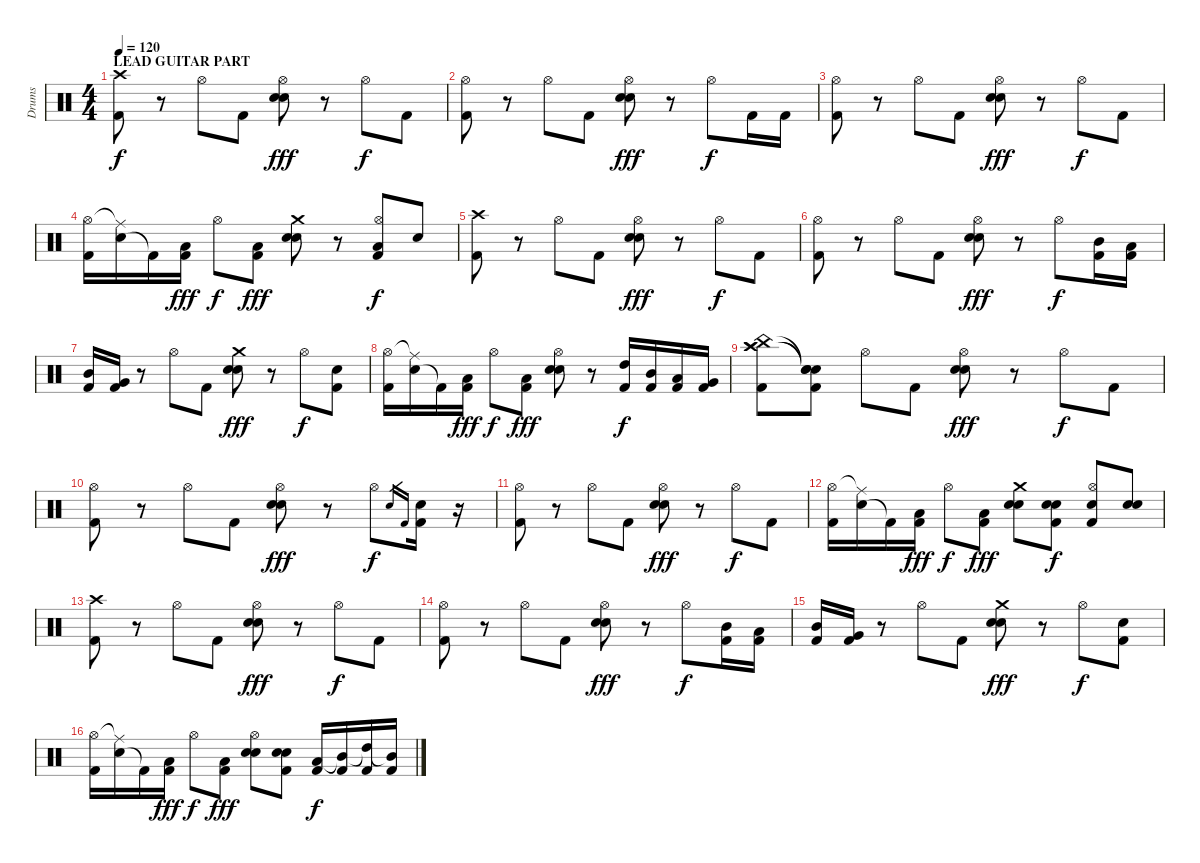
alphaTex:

\track ("Drums" "Drums") {instrument percussion}
\staff {score}
\articulation defaults
\ts (4 4)
\section ("" "LEAD GUITAR PART")
\tempo 120
\clef neutral
\ks c
("Kick (hit) 2" "Crash high (hit)").8{dy f} r.8 "Hi-Hat (open)".8 "Kick (hit) 2".8 ("Electric Snare (hit)" "Electric Snare (hit)" "Hi-Hat (open)").8{dy fff} r.8 "Hi-Hat (open)".8{dy f} "Kick (hit) 2".8 |
("Kick (hit) 2" "Hi-Hat (open)").8 r.8 "Hi-Hat (open)".8 "Kick (hit) 2".8 ("Electric Snare (hit)" "Electric Snare (hit)" "Hi-Hat (open)").8{dy fff} r.8 "Hi-Hat (open)".8{dy f} "Kick (hit) 2".16 "Kick (hit) 2".16 |
("Kick (hit) 2" "Hi-Hat (open)").8 r.8 "Hi-Hat (open)".8 "Kick (hit) 2".8 ("Electric Snare (hit)" "Electric Snare (hit)" "Hi-Hat (open)").8{dy fff} r.8 "Hi-Hat (open)".8{dy f} "Kick (hit) 2".8 |
("Kick (hit) 2" "Hi-Hat (open)").16 ("Electric Snare (hit)" "Ride (middle)"{t}).16 "Kick (hit) 2"{t}.16 ("Low Floor Tom (hit)" "Kick (hit) 2").16{dy fff} "Hi-Hat (open)".8{dy f} ("Low Floor Tom (hit)" "Kick (hit) 2").8{dy fff} ("Electric Snare (hit)" "Electric Snare (hit)" "Crash medium (hit)").8 r.8 ("Low Floor Tom (hit)" "Kick (hit) 2" "Hi-Hat (open)").8{dy f} "Electric Snare (hit)".8 |
("Kick (hit) 2" "Crash high (hit)").8 r.8 "Hi-Hat (open)".8 "Kick (hit) 2".8 ("Electric Snare (hit)" "Electric Snare (hit)" "Hi-Hat (open)").8{dy fff} r.8 "Hi-Hat (open)".8{dy f} "Kick (hit) 2".8 |
("Kick (hit) 2" "Hi-Hat (open)").8 r.8 "Hi-Hat (open)".8 "Kick (hit) 2".8 ("Electric Snare (hit)" "Electric Snare (hit)" "Hi-Hat (open)").8{dy fff} r.8 "Hi-Hat (open)".8{dy f} ("Mid Tom (hit)" "Kick (hit) 2").16 ("Low Tom (hit)" "Kick (hit) 2").16 |
("Mid Tom (hit)" "Kick (hit) 2").16 ("Very Low Tom (hit)" "Kick (hit) 2").16 r.8 "Hi-Hat (open)".8 "Kick (hit) 2".8 ("Electric Snare (hit)" "Electric Snare (hit)" "Crash medium (hit)").8{dy fff} r.8 "Hi-Hat (open)".8{dy f} ("Electric Snare (hit)" "Kick (hit) 2").8 |
("Kick (hit) 2" "Hi-Hat (open)").16 ("Electric Snare (hit)" "Ride (middle)"{t}).16 "Kick (hit) 2"{t}.16 ("Low Floor Tom (hit)" "Kick (hit) 2").16{dy fff} "Hi-Hat (open)".8{dy f} ("Low Floor Tom (hit)" "Kick (hit) 2").8{dy fff} ("Electric Snare (hit)" "Electric Snare (hit)" "Hi-Hat (open)").8 r.8 ("High Tom (hit)" "Kick (hit) 2").16{dy f} ("Mid Tom (hit)" "Kick (hit) 2").16 ("Low Tom (hit)" "Kick (hit) 2").16 ("Very Low Tom (hit)" "Kick (hit) 2").16 |
("China (hit)" "Crash high (hit)" "Kick (hit) 2" "Crash high (hit)").8 ("Snare (hit)"{t} "Snare (hit)"{t} "Kick (hit) 2" "Snare (hit)"{t}).8 "Hi-Hat (open)".8 "Kick (hit) 2".8 ("Electric Snare (hit)" "Electric Snare (hit)" "Hi-Hat (open)").8{dy fff} r.8 "Hi-Hat (open)".8{dy f} "Kick (hit) 2".8 |
("Kick (hit) 2" "Hi-Hat (open)").8 r.8 "Hi-Hat (open)".8 "Kick (hit) 2".8 ("Electric Snare (hit)" "Electric Snare (hit)" "Hi-Hat (open)").8{dy fff} r.8 "Hi-Hat (open)".8{dy f} "Electric Snare (hit)".16{gr} "Kick (hit) 2".16{gr} ("Electric Snare (hit)" "Kick (hit) 2").16 r.16 |
("Kick (hit) 2" "Hi-Hat (open)").8 r.8 "Hi-Hat (open)".8 "Kick (hit) 2".8 ("Electric Snare (hit)" "Electric Snare (hit)" "Hi-Hat (open)").8{dy fff} r.8 "Hi-Hat (open)".8{dy f} "Kick (hit) 2".8 |
("Kick (hit) 2" "Hi-Hat (open)").16 ("Electric Snare (hit)" "Ride (middle)"{t}).16 "Kick (hit) 2"{t}.16 ("Low Floor Tom (hit)" "Kick (hit) 2").16{dy fff} "Hi-Hat (open)".8{dy f} ("Low Floor Tom (hit)" "Kick (hit) 2").8{dy fff} ("Electric Snare (hit)" "Electric Snare (hit)" "Crash medium (hit)").8 ("Electric Snare (hit)" "Electric Snare (hit)" "Kick (hit) 2").8{dy f} ("Electric Snare (hit)" "Kick (hit) 2" "Hi-Hat (open)").8 ("Electric Snare (hit)" "Electric Snare (hit)").8 |
("Kick (hit) 2" "Crash high (hit)").8 r.8 "Hi-Hat (open)".8 "Kick (hit) 2".8 ("Electric Snare (hit)" "Electric Snare (hit)" "Hi-Hat (open)").8{dy fff} r.8 "Hi-Hat (open)".8{dy f} "Kick (hit) 2".8 |
("Kick (hit) 2" "Hi-Hat (open)").8 r.8 "Hi-Hat (open)".8 "Kick (hit) 2".8 ("Electric Snare (hit)" "Electric Snare (hit)" "Hi-Hat (open)").8{dy fff} r.8 "Hi-Hat (open)".8{dy f} ("Mid Tom (hit)" "Kick (hit) 2").16 ("Low Tom (hit)" "Kick (hit) 2").16 |
("Mid Tom (hit)" "Kick (hit) 2").16 ("Very Low Tom (hit)" "Kick (hit) 2").16 r.8 "Hi-Hat (open)".8 "Kick (hit) 2".8 ("Electric Snare (hit)" "Electric Snare (hit)" "Crash medium (hit)").8{dy fff} r.8 "Hi-Hat (open)".8{dy f} ("Electric Snare (hit)" "Kick (hit) 2").8 |
("Kick (hit) 2" "Hi-Hat (open)").16 ("Electric Snare (hit)" "Ride (middle)"{t}).16 "Kick (hit) 2"{t}.16 ("Low Floor Tom (hit)" "Kick (hit) 2").16{dy fff} "Hi-Hat (open)".8{dy f} ("Low Floor Tom (hit)" "Kick (hit) 2").8{dy fff} ("Electric Snare (hit)" "Electric Snare (hit)" "Hi-Hat (open)").8 ("Electric Snare (hit)" "Electric Snare (hit)" "Kick (hit) 2").8 ("Low Tom (hit)" "Kick (hit) 2").16{dy f} ("Mid Tom (hit)"{t} "Kick (hit) 2").16 ("High Tom (hit)"{t} "Kick (hit) 2").16 ("Mid Tom (hit)"{t} "Kick (hit) 2").16
